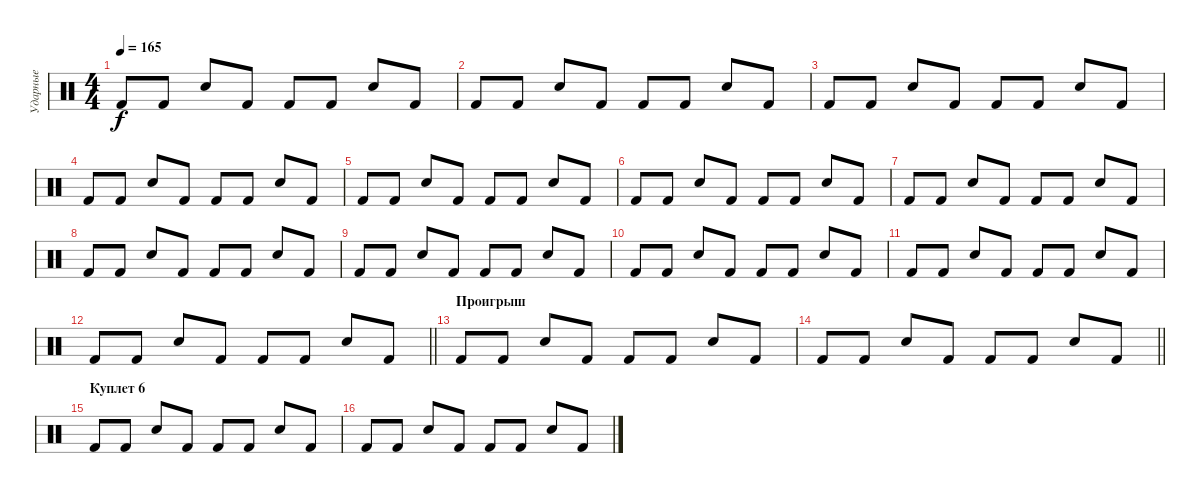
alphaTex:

\track ("Ударные" "Ударные") {instrument percussion}
\staff {score}
\articulation defaults
\ts (4 4)
\tempo 165
\clef neutral
\ks c "Kick (hit) 2".8{dy f} "Kick (hit) 2".8 "Snare (hit) 2".8 "Kick (hit) 2".8 "Kick (hit) 2".8 "Kick (hit) 2".8 "Snare (hit) 2".8 "Kick (hit) 2".8
|
"Kick (hit) 2".8 "Kick (hit) 2".8 "Snare (hit) 2".8 "Kick (hit) 2".8 "Kick (hit) 2".8 "Kick (hit) 2".8 "Snare (hit) 2".8 "Kick (hit) 2".8 |
"Kick (hit) 2".8 "Kick (hit) 2".8 "Snare (hit) 2".8 "Kick (hit) 2".8 "Kick (hit) 2".8 "Kick (hit) 2".8 "Snare (hit) 2".8 "Kick (hit) 2".8 |
"Kick (hit) 2".8 "Kick (hit) 2".8 "Snare (hit) 2".8 "Kick (hit) 2".8 "Kick (hit) 2".8 "Kick (hit) 2".8 "Snare (hit) 2".8 "Kick (hit) 2".8 |
"Kick (hit) 2".8 "Kick (hit) 2".8 "Snare (hit) 2".8 "Kick (hit) 2".8 "Kick (hit) 2".8 "Kick (hit) 2".8 "Snare (hit) 2".8 "Kick (hit) 2".8 |
"Kick (hit) 2".8 "Kick (hit) 2".8 "Snare (hit) 2".8 "Kick (hit) 2".8 "Kick (hit) 2".8 "Kick (hit) 2".8 "Snare (hit) 2".8 "Kick (hit) 2".8 |
"Kick (hit) 2".8 "Kick (hit) 2".8 "Snare (hit) 2".8 "Kick (hit) 2".8 "Kick (hit) 2".8 "Kick (hit) 2".8 "Snare (hit) 2".8 "Kick (hit) 2".8 |
"Kick (hit) 2".8 "Kick (hit) 2".8 "Snare (hit) 2".8 "Kick (hit) 2".8 "Kick (hit) 2".8 "Kick (hit) 2".8 "Snare (hit) 2".8 "Kick (hit) 2".8 |
"Kick (hit) 2".8 "Kick (hit) 2".8 "Snare (hit) 2".8 "Kick (hit) 2".8 "Kick (hit) 2".8 "Kick (hit) 2".8 "Snare (hit) 2".8 "Kick (hit) 2".8 |
"Kick (hit) 2".8 "Kick (hit) 2".8 "Snare (hit) 2".8 "Kick (hit) 2".8 "Kick (hit) 2".8 "Kick (hit) 2".8 "Snare (hit) 2".8 "Kick (hit) 2".8 |
"Kick (hit) 2".8 "Kick (hit) 2".8 "Snare (hit) 2".8 "Kick (hit) 2".8 "Kick (hit) 2".8 "Kick (hit) 2".8 "Snare (hit) 2".8 "Kick (hit) 2".8 |
\barLineRight lightlight "Kick (hit) 2".8 "Kick (hit) 2".8 "Snare (hit) 2".8 "Kick (hit) 2".8 "Kick (hit) 2".8 "Kick (hit) 2".8 "Snare (hit) 2".8 "Kick (hit) 2".8
|
\section ("" "Проигрыш")
"Kick (hit) 2".8 "Kick (hit) 2".8 "Snare (hit) 2".8 "Kick (hit) 2".8 "Kick (hit) 2".8 "Kick (hit) 2".8 "Snare (hit) 2".8 "Kick (hit) 2".8 |
\barLineRight lightlight "Kick (hit) 2".8 "Kick (hit) 2".8 "Snare (hit) 2".8 "Kick (hit) 2".8 "Kick (hit) 2".8 "Kick (hit) 2".8 "Snare (hit) 2".8 "Kick (hit) 2".8
|
\section ("" "Куплет 6")
"Kick (hit) 2".8 "Kick (hit) 2".8 "Snare (hit) 2".8 "Kick (hit) 2".8 "Kick (hit) 2".8 "Kick (hit) 2".8 "Snare (hit) 2".8 "Kick (hit) 2".8 |
"Kick (hit) 2".8 "Kick (hit) 2".8 "Snare (hit) 2".8 "Kick (hit) 2".8 "Kick (hit) 2".8 "Kick (hit) 2".8 "Snare (hit) 2".8 "Kick (hit) 2".8
